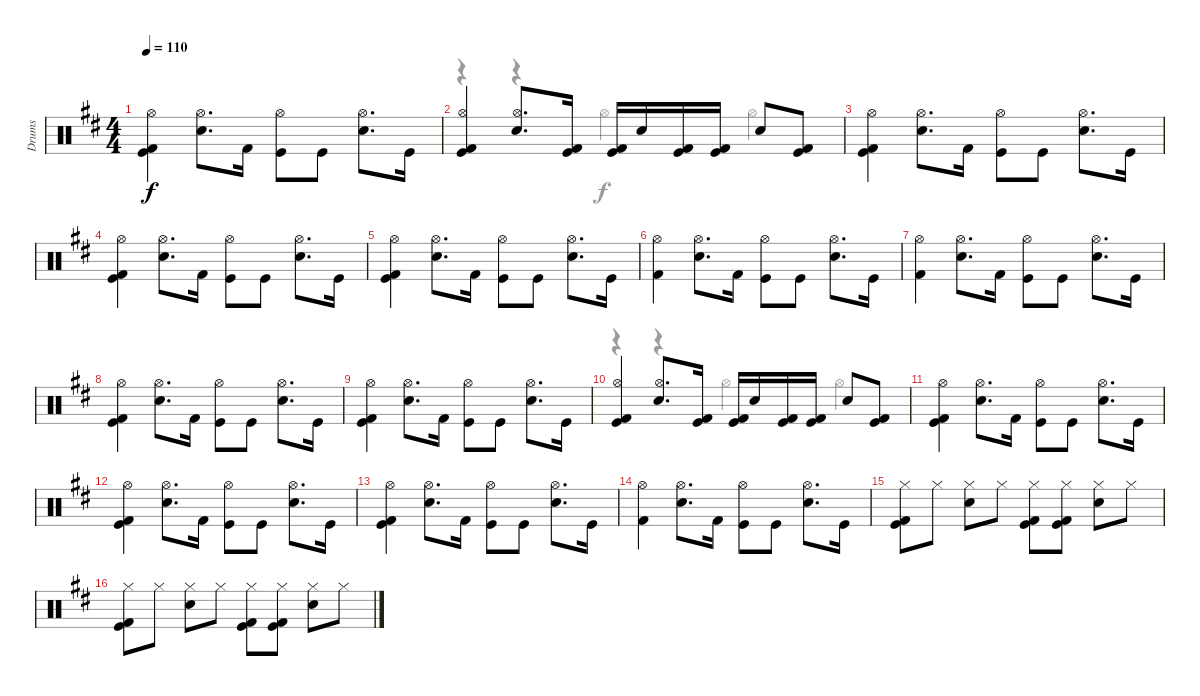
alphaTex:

\track ("Drums" "Drums") {instrument percussion}
\staff {score}
\articulation defaults
\voice
\ts (4 4)
\tempo 110
\clef neutral
\ks d
("Kick (hit) 2" "Kick (hit)" "Hi-Hat (open)").4{dy f} ("Snare (hit) 2" "Hi-Hat (open)").8{d} "Kick (hit) 2".16 ("Kick (hit)" "Hi-Hat (open)").8 "Kick (hit)".8 ("Snare (hit) 2" "Hi-Hat (open)").8{d} "Kick (hit)".16 |
("Kick (hit) 2" "Kick (hit)" "Hi-Hat (open)").4 ("Snare (hit) 2" "Hi-Hat (open)").8{d} ("Kick (hit) 2" "Kick (hit)").16 ("Kick (hit) 2" "Kick (hit)").16 "Electric Snare (hit)".16 ("Kick (hit)" "Kick (hit) 2").16 ("Kick (hit)" "Kick (hit) 2").16 "Electric Snare (hit)".8 ("Kick (hit)" "Kick (hit) 2").8 |
("Kick (hit) 2" "Kick (hit)" "Hi-Hat (open)").4 ("Snare (hit) 2" "Hi-Hat (open)").8{d} "Kick (hit) 2".16 ("Kick (hit)" "Hi-Hat (open)").8 "Kick (hit)".8 ("Snare (hit) 2" "Hi-Hat (open)").8{d} "Kick (hit)".16 |
("Kick (hit) 2" "Kick (hit)" "Hi-Hat (open)").4 ("Snare (hit) 2" "Hi-Hat (open)").8{d} "Kick (hit) 2".16 ("Kick (hit)" "Hi-Hat (open)").8 "Kick (hit)".8 ("Snare (hit) 2" "Hi-Hat (open)").8{d} "Kick (hit)".16 |
("Kick (hit) 2" "Kick (hit)" "Hi-Hat (open)").4 ("Snare (hit) 2" "Hi-Hat (open)").8{d} "Kick (hit) 2".16 ("Kick (hit)" "Hi-Hat (open)").8 "Kick (hit)".8 ("Snare (hit) 2" "Hi-Hat (open)").8{d} "Kick (hit)".16 |
("Kick (hit) 2" "Hi-Hat (open)").4 ("Snare (hit) 2" "Hi-Hat (open)").8{d} "Kick (hit) 2".16 ("Kick (hit)" "Hi-Hat (open)").8 "Kick (hit)".8 ("Snare (hit) 2" "Hi-Hat (open)").8{d} "Kick (hit)".16 |
("Kick (hit) 2" "Hi-Hat (open)").4 ("Snare (hit) 2" "Hi-Hat (open)").8{d} "Kick (hit) 2".16 ("Kick (hit)" "Hi-Hat (open)").8 "Kick (hit)".8 ("Snare (hit) 2" "Hi-Hat (open)").8{d} "Kick (hit)".16 |
("Kick (hit) 2" "Kick (hit)" "Hi-Hat (open)").4 ("Snare (hit) 2" "Hi-Hat (open)").8{d} "Kick (hit) 2".16 ("Kick (hit)" "Hi-Hat (open)").8 "Kick (hit)".8 ("Snare (hit) 2" "Hi-Hat (open)").8{d} "Kick (hit)".16 |
("Kick (hit) 2" "Kick (hit)" "Hi-Hat (open)").4 ("Snare (hit) 2" "Hi-Hat (open)").8{d} "Kick (hit) 2".16 ("Kick (hit)" "Hi-Hat (open)").8 "Kick (hit)".8 ("Snare (hit) 2" "Hi-Hat (open)").8{d} "Kick (hit)".16 |
("Kick (hit) 2" "Kick (hit)" "Hi-Hat (open)").4 ("Snare (hit) 2" "Hi-Hat (open)").8{d} ("Kick (hit) 2" "Kick (hit)").16 ("Kick (hit) 2" "Kick (hit)").16 "Electric Snare (hit)".16 ("Kick (hit)" "Kick (hit) 2").16 ("Kick (hit)" "Kick (hit) 2").16 "Electric Snare (hit)".8 ("Kick (hit)" "Kick (hit) 2").8 |
("Kick (hit) 2" "Kick (hit)" "Hi-Hat (open)").4 ("Snare (hit) 2" "Hi-Hat (open)").8{d} "Kick (hit) 2".16 ("Kick (hit)" "Hi-Hat (open)").8 "Kick (hit)".8 ("Snare (hit) 2" "Hi-Hat (open)").8{d} "Kick (hit)".16 |
("Kick (hit) 2" "Kick (hit)" "Hi-Hat (open)").4 ("Snare (hit) 2" "Hi-Hat (open)").8{d} "Kick (hit) 2".16 ("Kick (hit)" "Hi-Hat (open)").8 "Kick (hit)".8 ("Snare (hit) 2" "Hi-Hat (open)").8{d} "Kick (hit)".16 |
("Kick (hit) 2" "Kick (hit)" "Hi-Hat (open)").4 ("Snare (hit) 2" "Hi-Hat (open)").8{d} "Kick (hit) 2".16 ("Kick (hit)" "Hi-Hat (open)").8 "Kick (hit)".8 ("Snare (hit) 2" "Hi-Hat (open)").8{d} "Kick (hit)".16 |
("Kick (hit) 2" "Hi-Hat (open)").4 ("Snare (hit) 2" "Hi-Hat (open)").8{d} "Kick (hit) 2".16 ("Kick (hit)" "Hi-Hat (open)").8 "Kick (hit)".8 ("Snare (hit) 2" "Hi-Hat (open)").8{d} "Kick (hit)".16 |
("Hi-Hat (closed)" "Kick (hit)" "Kick (hit) 2").8 "Hi-Hat (closed)".8 ("Hi-Hat (closed)" "Electric Snare (hit)").8 "Hi-Hat (closed)".8 ("Hi-Hat (closed)" "Kick (hit) 2" "Kick (hit)").8 ("Hi-Hat (closed)" "Kick (hit) 2" "Kick (hit)").8 ("Hi-Hat (closed)" "Electric Snare (hit)").8 "Hi-Hat (closed)".8 |
("Hi-Hat (closed)" "Kick (hit)" "Kick (hit) 2").8 "Hi-Hat (closed)".8 ("Hi-Hat (closed)" "Electric Snare (hit)").8 "Hi-Hat (closed)".8 ("Hi-Hat (closed)" "Kick (hit) 2" "Kick (hit)").8 ("Hi-Hat (closed)" "Kick (hit) 2" "Kick (hit)").8 ("Hi-Hat (closed)" "Electric Snare (hit)").8 "Hi-Hat (closed)".8
\voice
\clef neutral
\ottava regular
\simile none
\ks d
|
r.4 r.4 "Hi-Hat (open)".4 "Hi-Hat (open)".4 |
|
|
|
|
|
|
|
r.4 r.4 "Hi-Hat (open)".4 "Hi-Hat (open)".4 |
|
|
|
|
|
